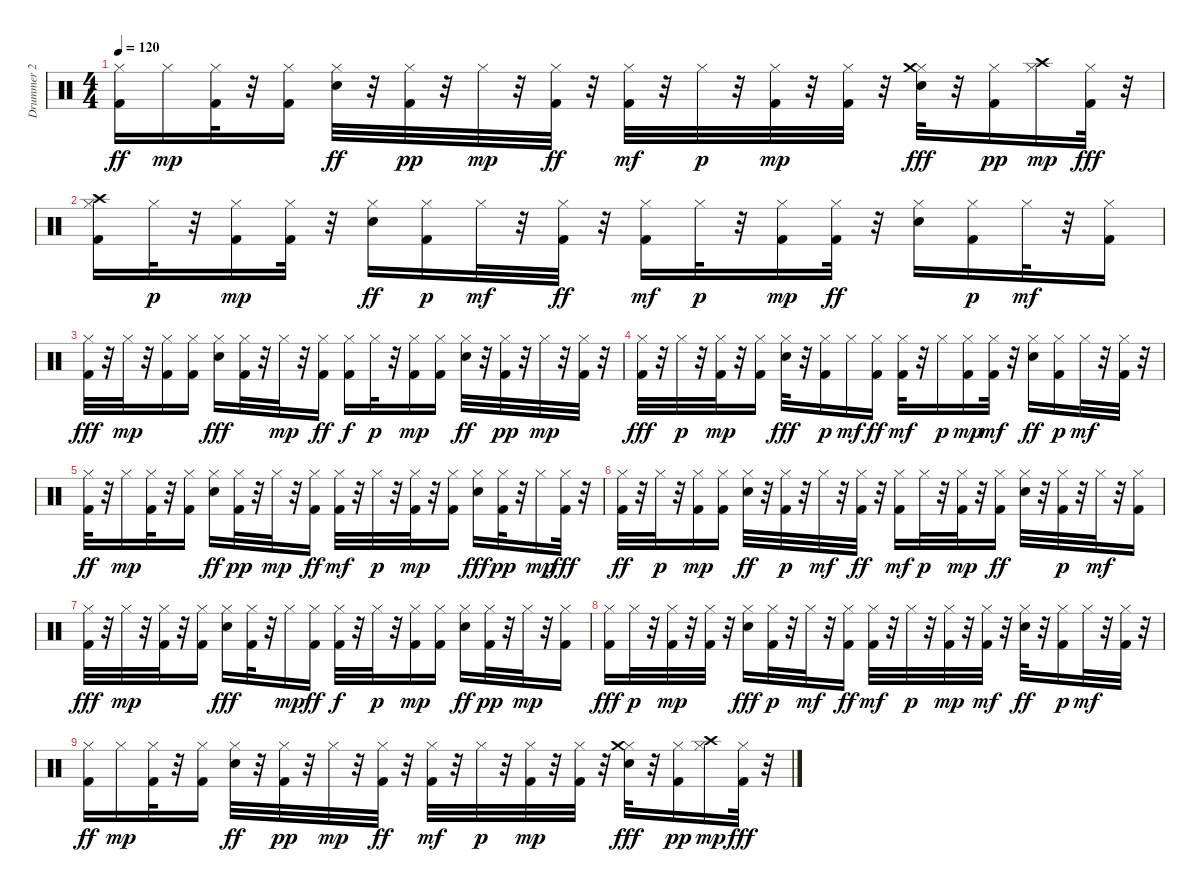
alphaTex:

\track ("Drummer 2" "Drummer 2") {instrument percussion}
\staff {score}
\articulation defaults
\ts (4 4)
\tempo 120
\clef neutral
\ks c
("Kick (hit) 2" "Hi-Hat (closed)").16{dy ff} "Hi-Hat (closed)".16{dy mp} ("Kick (hit) 2" "Hi-Hat (closed)").32 r.32 ("Kick (hit) 2" "Hi-Hat (closed)").16 ("Hi-Hat (closed)" "Snare (hit) 2").32{dy ff} r.32 ("Kick (hit) 2" "Hi-Hat (closed)").32{dy pp} r.32 "Hi-Hat (closed)".32{dy mp} r.32 ("Kick (hit) 2" "Hi-Hat (closed)").32{dy ff} r.32 ("Kick (hit) 2" "Hi-Hat (closed)").32{dy mf} r.32 "Hi-Hat (closed)".32{dy p} r.32 ("Kick (hit) 2" "Hi-Hat (closed)").32{dy mp} r.32 ("Kick (hit) 2" "Hi-Hat (closed)").32 r.32 ("Hi-Hat (closed)" "Crash medium (hit)" "Snare (hit) 2").32{dy fff} r.32 ("Kick (hit) 2" "Hi-Hat (closed)").16{dy pp} ("Hi-Hat (closed)" "Crash high (hit)").16{dy mp} ("Hi-Hat (closed)" "Kick (hit) 2").32{dy fff} r.32 |
("Kick (hit) 2" "Hi-Hat (closed)" "Crash high (hit)").16 "Hi-Hat (closed)".32{dy p} r.32 ("Kick (hit) 2" "Hi-Hat (closed)").16{dy mp} ("Kick (hit) 2" "Hi-Hat (closed)").32 r.32 ("Hi-Hat (closed)" "Snare (hit) 2").16{dy ff} ("Kick (hit) 2" "Hi-Hat (closed)").16{dy p} "Hi-Hat (closed)".32{dy mf} r.32 ("Kick (hit) 2" "Hi-Hat (closed)").32{dy ff} r.32 ("Kick (hit) 2" "Hi-Hat (closed)").16{dy mf} "Hi-Hat (closed)".32{dy p} r.32 ("Kick (hit) 2" "Hi-Hat (closed)").16{dy mp} ("Kick (hit) 2" "Hi-Hat (closed)").32{dy ff} r.32 ("Hi-Hat (closed)" "Snare (hit) 2").16 ("Kick (hit) 2" "Hi-Hat (closed)").16{dy p} "Hi-Hat (closed)".32{dy mf} r.32 ("Kick (hit) 2" "Hi-Hat (closed)").16 |
("Hi-Hat (closed)" "Kick (hit) 2").32{dy fff} r.32 "Hi-Hat (closed)".32{dy mp} r.32 ("Kick (hit) 2" "Hi-Hat (closed)").16 ("Kick (hit) 2" "Hi-Hat (closed)").16 ("Hi-Hat (closed)" "Snare (hit) 2").16{dy fff} ("Hi-Hat (closed)" "Kick (hit) 2").32 r.32 "Hi-Hat (closed)".32{dy mp} r.32 ("Kick (hit) 2" "Hi-Hat (closed)").16{dy ff} ("Hi-Hat (closed)" "Kick (hit) 2").16{dy f} "Hi-Hat (closed)".32{dy p} r.32 ("Kick (hit) 2" "Hi-Hat (closed)").16{dy mp} ("Kick (hit) 2" "Hi-Hat (closed)").16 ("Hi-Hat (closed)" "Snare (hit) 2").32{dy ff} r.32 ("Kick (hit) 2" "Hi-Hat (closed)").32{dy pp} r.32 "Hi-Hat (closed)".32{dy mp} r.32 ("Kick (hit) 2" "Hi-Hat (closed)").32 r.32 |
("Hi-Hat (closed)" "Kick (hit) 2").32{dy fff} r.32 "Hi-Hat (closed)".32{dy p} r.32 ("Kick (hit) 2" "Hi-Hat (closed)").32{dy mp} r.32 ("Kick (hit) 2" "Hi-Hat (closed)").16 ("Hi-Hat (closed)" "Snare (hit) 2").32{dy fff} r.32 ("Kick (hit) 2" "Hi-Hat (closed)").16{dy p} "Hi-Hat (closed)".16{dy mf} ("Hi-Hat (closed)" "Kick (hit) 2").16{dy ff} ("Kick (hit) 2" "Hi-Hat (closed)").32{dy mf} r.32 "Hi-Hat (closed)".16{dy p} ("Kick (hit) 2" "Hi-Hat (closed)").16{dy mp} ("Hi-Hat (closed)" "Kick (hit) 2").32{dy mf} r.32 ("Hi-Hat (closed)" "Snare (hit) 2").16{dy ff} ("Kick (hit) 2" "Hi-Hat (closed)").16{dy p} "Hi-Hat (closed)".32{dy mf} r.32 ("Kick (hit) 2" "Hi-Hat (closed)").32 r.32 |
("Kick (hit) 2" "Hi-Hat (closed)").32{dy ff} r.32 "Hi-Hat (closed)".16{dy mp} ("Kick (hit) 2" "Hi-Hat (closed)").32 r.32 ("Kick (hit) 2" "Hi-Hat (closed)").16 ("Hi-Hat (closed)" "Snare (hit) 2").16{dy ff} ("Kick (hit) 2" "Hi-Hat (closed)").32{dy pp} r.32 "Hi-Hat (closed)".32{dy mp} r.32 ("Kick (hit) 2" "Hi-Hat (closed)").16{dy ff} ("Kick (hit) 2" "Hi-Hat (closed)").32{dy mf} r.32 "Hi-Hat (closed)".32{dy p} r.32 ("Kick (hit) 2" "Hi-Hat (closed)").32{dy mp} r.32 ("Kick (hit) 2" "Hi-Hat (closed)").16 ("Hi-Hat (closed)" "Snare (hit) 2").16{dy fff} ("Kick (hit) 2" "Hi-Hat (closed)").32{dy pp} r.32 "Hi-Hat (closed)".16{dy mp} ("Hi-Hat (closed)" "Kick (hit) 2").32{dy fff} r.32 |
("Kick (hit) 2" "Hi-Hat (closed)").32{dy ff} r.32 "Hi-Hat (closed)".32{dy p} r.32 ("Kick (hit) 2" "Hi-Hat (closed)").16{dy mp} ("Kick (hit) 2" "Hi-Hat (closed)").16 ("Hi-Hat (closed)" "Snare (hit) 2").32{dy ff} r.32 ("Kick (hit) 2" "Hi-Hat (closed)").32{dy p} r.32 "Hi-Hat (closed)".32{dy mf} r.32 ("Kick (hit) 2" "Hi-Hat (closed)").32{dy ff} r.32 ("Kick (hit) 2" "Hi-Hat (closed)").16{dy mf} "Hi-Hat (closed)".32{dy p} r.32 ("Kick (hit) 2" "Hi-Hat (closed)").32{dy mp} r.32 ("Kick (hit) 2" "Hi-Hat (closed)").16{dy ff} ("Hi-Hat (closed)" "Snare (hit) 2").32 r.32 ("Kick (hit) 2" "Hi-Hat (closed)").32{dy p} r.32 "Hi-Hat (closed)".32{dy mf} r.32 ("Kick (hit) 2" "Hi-Hat (closed)").16 |
("Hi-Hat (closed)" "Kick (hit) 2").32{dy fff} r.32 "Hi-Hat (closed)".32{dy mp} r.32 ("Kick (hit) 2" "Hi-Hat (closed)").32 r.32 ("Kick (hit) 2" "Hi-Hat (closed)").16 ("Hi-Hat (closed)" "Snare (hit) 2").16{dy fff} ("Hi-Hat (closed)" "Kick (hit) 2").32 r.32 "Hi-Hat (closed)".16{dy mp} ("Kick (hit) 2" "Hi-Hat (closed)").16{dy ff} ("Hi-Hat (closed)" "Kick (hit) 2").32{dy f} r.32 "Hi-Hat (closed)".32{dy p} r.32 ("Kick (hit) 2" "Hi-Hat (closed)").16{dy mp} ("Kick (hit) 2" "Hi-Hat (closed)").16 ("Hi-Hat (closed)" "Snare (hit) 2").16{dy ff} ("Kick (hit) 2" "Hi-Hat (closed)").32{dy pp} r.32 "Hi-Hat (closed)".32{dy mp} r.32 ("Kick (hit) 2" "Hi-Hat (closed)").16 |
("Hi-Hat (closed)" "Kick (hit) 2").16{dy fff} "Hi-Hat (closed)".32{dy p} r.32 ("Kick (hit) 2" "Hi-Hat (closed)").32{dy mp} r.32 ("Kick (hit) 2" "Hi-Hat (closed)").32 r.32 ("Hi-Hat (closed)" "Snare (hit) 2").16{dy fff} ("Kick (hit) 2" "Hi-Hat (closed)").32{dy p} r.32 "Hi-Hat (closed)".32{dy mf} r.32 ("Hi-Hat (closed)" "Kick (hit) 2").16{dy ff} ("Kick (hit) 2" "Hi-Hat (closed)").32{dy mf} r.32 "Hi-Hat (closed)".32{dy p} r.32 ("Kick (hit) 2" "Hi-Hat (closed)").32{dy mp} r.32 ("Hi-Hat (closed)" "Kick (hit) 2").32{dy mf} r.32 ("Hi-Hat (closed)" "Snare (hit) 2").32{dy ff} r.32 ("Kick (hit) 2" "Hi-Hat (closed)").16{dy p} "Hi-Hat (closed)".32{dy mf} r.32 ("Kick (hit) 2" "Hi-Hat (closed)").32 r.32 |
("Kick (hit) 2" "Hi-Hat (closed)").16{dy ff} "Hi-Hat (closed)".16{dy mp} ("Kick (hit) 2" "Hi-Hat (closed)").32 r.32 ("Kick (hit) 2" "Hi-Hat (closed)").16 ("Hi-Hat (closed)" "Snare (hit) 2").32{dy ff} r.32 ("Kick (hit) 2" "Hi-Hat (closed)").32{dy pp} r.32 "Hi-Hat (closed)".32{dy mp} r.32 ("Kick (hit) 2" "Hi-Hat (closed)").32{dy ff} r.32 ("Kick (hit) 2" "Hi-Hat (closed)").32{dy mf} r.32 "Hi-Hat (closed)".32{dy p} r.32 ("Kick (hit) 2" "Hi-Hat (closed)").32{dy mp} r.32 ("Kick (hit) 2" "Hi-Hat (closed)").32 r.32 ("Hi-Hat (closed)" "Crash medium (hit)" "Snare (hit) 2").32{dy fff} r.32 ("Kick (hit) 2" "Hi-Hat (closed)").16{dy pp} ("Hi-Hat (closed)" "Crash high (hit)").16{dy mp} ("Hi-Hat (closed)" "Kick (hit) 2").32{dy fff} r.32
